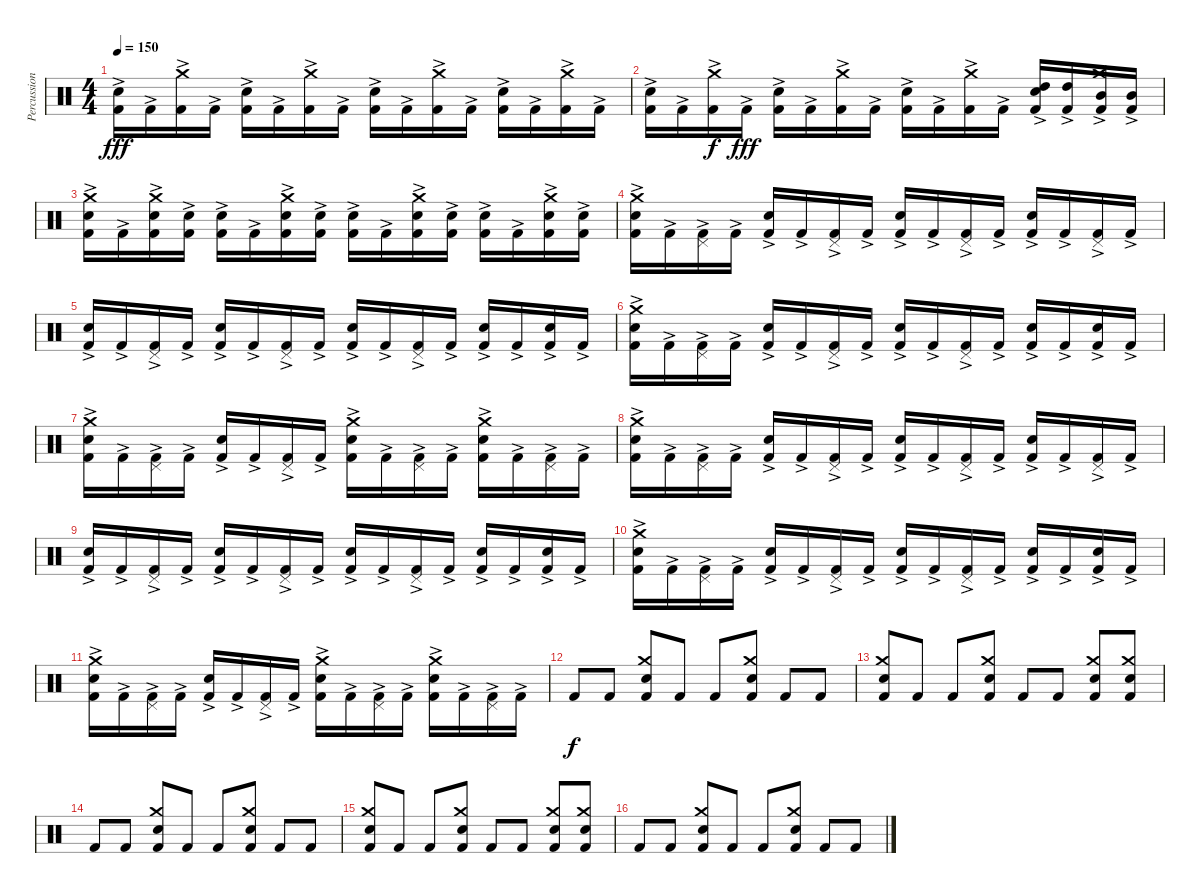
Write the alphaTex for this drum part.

\track ("Percussions" "Percussion") {instrument percussion}
\staff {score}
\articulation defaults
\ts (4 4)
\tempo 150
\clef neutral
\ks c
("Electric Snare (hit)" "Kick (hit) 2"{ac}).16{dy fff} "Kick (hit) 2"{ac}.16 ("Crash medium (hit)" "Kick (hit) 2"{ac}).16 "Kick (hit) 2"{ac}.16 ("Electric Snare (hit)" "Kick (hit) 2"{ac}).16 "Kick (hit) 2"{ac}.16 ("Crash medium (hit)" "Kick (hit) 2"{ac}).16 "Kick (hit) 2"{ac}.16 ("Electric Snare (hit)" "Kick (hit) 2"{ac}).16 "Kick (hit) 2"{ac}.16 ("Crash medium (hit)" "Kick (hit) 2"{ac}).16 "Kick (hit) 2"{ac}.16 ("Electric Snare (hit)" "Kick (hit) 2"{ac}).16 "Kick (hit) 2"{ac}.16 ("Crash medium (hit)" "Kick (hit) 2"{ac}).16 "Kick (hit) 2"{ac}.16 |
("Electric Snare (hit)" "Kick (hit) 2"{ac}).16 "Kick (hit) 2"{ac}.16 ("Crash medium (hit)" "Kick (hit) 2"{ac}).16{dy f} "Kick (hit) 2"{ac}.16{dy fff} ("Electric Snare (hit)" "Kick (hit) 2"{ac}).16 "Kick (hit) 2"{ac}.16 ("Crash medium (hit)" "Kick (hit) 2"{ac}).16 "Kick (hit) 2"{ac}.16 ("Electric Snare (hit)" "Kick (hit) 2"{ac}).16 "Kick (hit) 2"{ac}.16 ("Crash medium (hit)" "Kick (hit) 2"{ac}).16 "Kick (hit) 2"{ac}.16 ("High Tom (hit)" "Electric Snare (hit)" "Kick (hit) 2"{ac}).16 ("High Tom (hit)" "Kick (hit) 2"{ac}).16 ("Mid Tom (hit)" "Crash medium (hit)" "Kick (hit) 2"{ac}).16 ("Mid Tom (hit)" "Kick (hit) 2"{ac}).16 |
("Crash medium (hit)" "Electric Snare (hit)" "Kick (hit) 2"{ac}).16 "Kick (hit) 2"{ac}.16 ("Crash medium (hit)" "Electric Snare (hit)" "Kick (hit) 2"{ac}).16 ("Electric Snare (hit)" "Kick (hit) 2"{ac}).16 ("Electric Snare (hit)" "Kick (hit) 2"{ac}).16 "Kick (hit) 2"{ac}.16 ("Crash medium (hit)" "Electric Snare (hit)" "Kick (hit) 2"{ac}).16 ("Electric Snare (hit)" "Kick (hit) 2"{ac}).16 ("Electric Snare (hit)" "Kick (hit) 2"{ac}).16 "Kick (hit) 2"{ac}.16 ("Crash medium (hit)" "Electric Snare (hit)" "Kick (hit) 2"{ac}).16 ("Electric Snare (hit)" "Kick (hit) 2"{ac}).16 ("Electric Snare (hit)" "Kick (hit) 2"{ac}).16 "Kick (hit) 2"{ac}.16 ("Crash medium (hit)" "Electric Snare (hit)" "Kick (hit) 2"{ac}).16 ("Electric Snare (hit)" "Kick (hit) 2"{ac}).16 |
("Crash medium (hit)" "Electric Snare (hit)" "Kick (hit) 2"{ac}).16 "Kick (hit) 2"{ac}.16 ("Pedal Hi-Hat (hit)" "Kick (hit) 2"{ac}).16 "Kick (hit) 2"{ac}.16 ("Electric Snare (hit)" "Kick (hit) 2"{ac}).16 "Kick (hit) 2"{ac}.16 ("Pedal Hi-Hat (hit)" "Kick (hit) 2"{ac}).16 "Kick (hit) 2"{ac}.16 ("Electric Snare (hit)" "Kick (hit) 2"{ac}).16 "Kick (hit) 2"{ac}.16 ("Pedal Hi-Hat (hit)" "Kick (hit) 2"{ac}).16 "Kick (hit) 2"{ac}.16 ("Electric Snare (hit)" "Kick (hit) 2"{ac}).16 "Kick (hit) 2"{ac}.16 ("Pedal Hi-Hat (hit)" "Kick (hit) 2"{ac}).16 "Kick (hit) 2"{ac}.16 |
("Electric Snare (hit)" "Kick (hit) 2"{ac}).16 "Kick (hit) 2"{ac}.16 ("Pedal Hi-Hat (hit)" "Kick (hit) 2"{ac}).16 "Kick (hit) 2"{ac}.16 ("Electric Snare (hit)" "Kick (hit) 2"{ac}).16 "Kick (hit) 2"{ac}.16 ("Pedal Hi-Hat (hit)" "Kick (hit) 2"{ac}).16 "Kick (hit) 2"{ac}.16 ("Electric Snare (hit)" "Kick (hit) 2"{ac}).16 "Kick (hit) 2"{ac}.16 ("Pedal Hi-Hat (hit)" "Kick (hit) 2"{ac}).16 "Kick (hit) 2"{ac}.16 ("Electric Snare (hit)" "Kick (hit) 2"{ac}).16 "Kick (hit) 2"{ac}.16 ("Electric Snare (hit)" "Kick (hit) 2"{ac}).16 "Kick (hit) 2"{ac}.16 |
("Crash medium (hit)" "Electric Snare (hit)" "Kick (hit) 2"{ac}).16 "Kick (hit) 2"{ac}.16 ("Pedal Hi-Hat (hit)" "Kick (hit) 2"{ac}).16 "Kick (hit) 2"{ac}.16 ("Electric Snare (hit)" "Kick (hit) 2"{ac}).16 "Kick (hit) 2"{ac}.16 ("Pedal Hi-Hat (hit)" "Kick (hit) 2"{ac}).16 "Kick (hit) 2"{ac}.16 ("Electric Snare (hit)" "Kick (hit) 2"{ac}).16 "Kick (hit) 2"{ac}.16 ("Pedal Hi-Hat (hit)" "Kick (hit) 2"{ac}).16 "Kick (hit) 2"{ac}.16 ("Electric Snare (hit)" "Kick (hit) 2"{ac}).16 "Kick (hit) 2"{ac}.16 ("Electric Snare (hit)" "Kick (hit) 2"{ac}).16 "Kick (hit) 2"{ac}.16 |
("Crash medium (hit)" "Electric Snare (hit)" "Kick (hit) 2"{ac}).16 "Kick (hit) 2"{ac}.16 ("Pedal Hi-Hat (hit)" "Kick (hit) 2"{ac}).16 "Kick (hit) 2"{ac}.16 ("Electric Snare (hit)" "Kick (hit) 2"{ac}).16 "Kick (hit) 2"{ac}.16 ("Pedal Hi-Hat (hit)" "Kick (hit) 2"{ac}).16 "Kick (hit) 2"{ac}.16 ("Crash medium (hit)" "Electric Snare (hit)" "Kick (hit) 2"{ac}).16 "Kick (hit) 2"{ac}.16 ("Pedal Hi-Hat (hit)" "Kick (hit) 2"{ac}).16 "Kick (hit) 2"{ac}.16 ("Crash medium (hit)" "Electric Snare (hit)" "Kick (hit) 2"{ac}).16 "Kick (hit) 2"{ac}.16 ("Pedal Hi-Hat (hit)" "Kick (hit) 2"{ac}).16 "Kick (hit) 2"{ac}.16 |
("Crash medium (hit)" "Electric Snare (hit)" "Kick (hit) 2"{ac}).16 "Kick (hit) 2"{ac}.16 ("Pedal Hi-Hat (hit)" "Kick (hit) 2"{ac}).16 "Kick (hit) 2"{ac}.16 ("Electric Snare (hit)" "Kick (hit) 2"{ac}).16 "Kick (hit) 2"{ac}.16 ("Pedal Hi-Hat (hit)" "Kick (hit) 2"{ac}).16 "Kick (hit) 2"{ac}.16 ("Electric Snare (hit)" "Kick (hit) 2"{ac}).16 "Kick (hit) 2"{ac}.16 ("Pedal Hi-Hat (hit)" "Kick (hit) 2"{ac}).16 "Kick (hit) 2"{ac}.16 ("Electric Snare (hit)" "Kick (hit) 2"{ac}).16 "Kick (hit) 2"{ac}.16 ("Pedal Hi-Hat (hit)" "Kick (hit) 2"{ac}).16 "Kick (hit) 2"{ac}.16 |
("Electric Snare (hit)" "Kick (hit) 2"{ac}).16 "Kick (hit) 2"{ac}.16 ("Pedal Hi-Hat (hit)" "Kick (hit) 2"{ac}).16 "Kick (hit) 2"{ac}.16 ("Electric Snare (hit)" "Kick (hit) 2"{ac}).16 "Kick (hit) 2"{ac}.16 ("Pedal Hi-Hat (hit)" "Kick (hit) 2"{ac}).16 "Kick (hit) 2"{ac}.16 ("Electric Snare (hit)" "Kick (hit) 2"{ac}).16 "Kick (hit) 2"{ac}.16 ("Pedal Hi-Hat (hit)" "Kick (hit) 2"{ac}).16 "Kick (hit) 2"{ac}.16 ("Electric Snare (hit)" "Kick (hit) 2"{ac}).16 "Kick (hit) 2"{ac}.16 ("Electric Snare (hit)" "Kick (hit) 2"{ac}).16 "Kick (hit) 2"{ac}.16 |
("Crash medium (hit)" "Electric Snare (hit)" "Kick (hit) 2"{ac}).16 "Kick (hit) 2"{ac}.16 ("Pedal Hi-Hat (hit)" "Kick (hit) 2"{ac}).16 "Kick (hit) 2"{ac}.16 ("Electric Snare (hit)" "Kick (hit) 2"{ac}).16 "Kick (hit) 2"{ac}.16 ("Pedal Hi-Hat (hit)" "Kick (hit) 2"{ac}).16 "Kick (hit) 2"{ac}.16 ("Electric Snare (hit)" "Kick (hit) 2"{ac}).16 "Kick (hit) 2"{ac}.16 ("Pedal Hi-Hat (hit)" "Kick (hit) 2"{ac}).16 "Kick (hit) 2"{ac}.16 ("Electric Snare (hit)" "Kick (hit) 2"{ac}).16 "Kick (hit) 2"{ac}.16 ("Electric Snare (hit)" "Kick (hit) 2"{ac}).16 "Kick (hit) 2"{ac}.16 |
("Crash medium (hit)" "Electric Snare (hit)" "Kick (hit) 2"{ac}).16 "Kick (hit) 2"{ac}.16 ("Pedal Hi-Hat (hit)" "Kick (hit) 2"{ac}).16 "Kick (hit) 2"{ac}.16 ("Electric Snare (hit)" "Kick (hit) 2"{ac}).16 "Kick (hit) 2"{ac}.16 ("Pedal Hi-Hat (hit)" "Kick (hit) 2"{ac}).16 "Kick (hit) 2"{ac}.16 ("Crash medium (hit)" "Electric Snare (hit)" "Kick (hit) 2"{ac}).16 "Kick (hit) 2"{ac}.16 ("Pedal Hi-Hat (hit)" "Kick (hit) 2"{ac}).16 "Kick (hit) 2"{ac}.16 ("Crash medium (hit)" "Electric Snare (hit)" "Kick (hit) 2"{ac}).16 "Kick (hit) 2"{ac}.16 ("Pedal Hi-Hat (hit)" "Kick (hit) 2"{ac}).16 "Kick (hit) 2"{ac}.16 |
"Kick (hit) 2".8{dy f} "Kick (hit) 2".8 ("Snare (hit) 2" "Crash medium (hit)" "Kick (hit) 2").8 "Kick (hit) 2".8 "Kick (hit) 2".8 ("Snare (hit) 2" "Crash medium (hit)" "Kick (hit) 2").8 "Kick (hit) 2".8 "Kick (hit) 2".8 |
("Snare (hit) 2" "Crash medium (hit)" "Kick (hit) 2").8 "Kick (hit) 2".8 "Kick (hit) 2".8 ("Snare (hit) 2" "Crash medium (hit)" "Kick (hit) 2").8 "Kick (hit) 2".8 "Kick (hit) 2".8 ("Snare (hit) 2" "Crash medium (hit)" "Kick (hit) 2").8 ("Snare (hit) 2" "Crash medium (hit)" "Kick (hit) 2").8 |
"Kick (hit) 2".8 "Kick (hit) 2".8 ("Snare (hit) 2" "Crash medium (hit)" "Kick (hit) 2").8 "Kick (hit) 2".8 "Kick (hit) 2".8 ("Snare (hit) 2" "Crash medium (hit)" "Kick (hit) 2").8 "Kick (hit) 2".8 "Kick (hit) 2".8 |
("Snare (hit) 2" "Crash medium (hit)" "Kick (hit) 2").8 "Kick (hit) 2".8 "Kick (hit) 2".8 ("Snare (hit) 2" "Crash medium (hit)" "Kick (hit) 2").8 "Kick (hit) 2".8 "Kick (hit) 2".8 ("Snare (hit) 2" "Crash medium (hit)" "Kick (hit) 2").8 ("Snare (hit) 2" "Crash medium (hit)" "Kick (hit) 2").8 |
"Kick (hit) 2".8 "Kick (hit) 2".8 ("Snare (hit) 2" "Crash medium (hit)" "Kick (hit) 2").8 "Kick (hit) 2".8 "Kick (hit) 2".8 ("Snare (hit) 2" "Crash medium (hit)" "Kick (hit) 2").8 "Kick (hit) 2".8 "Kick (hit) 2".8
